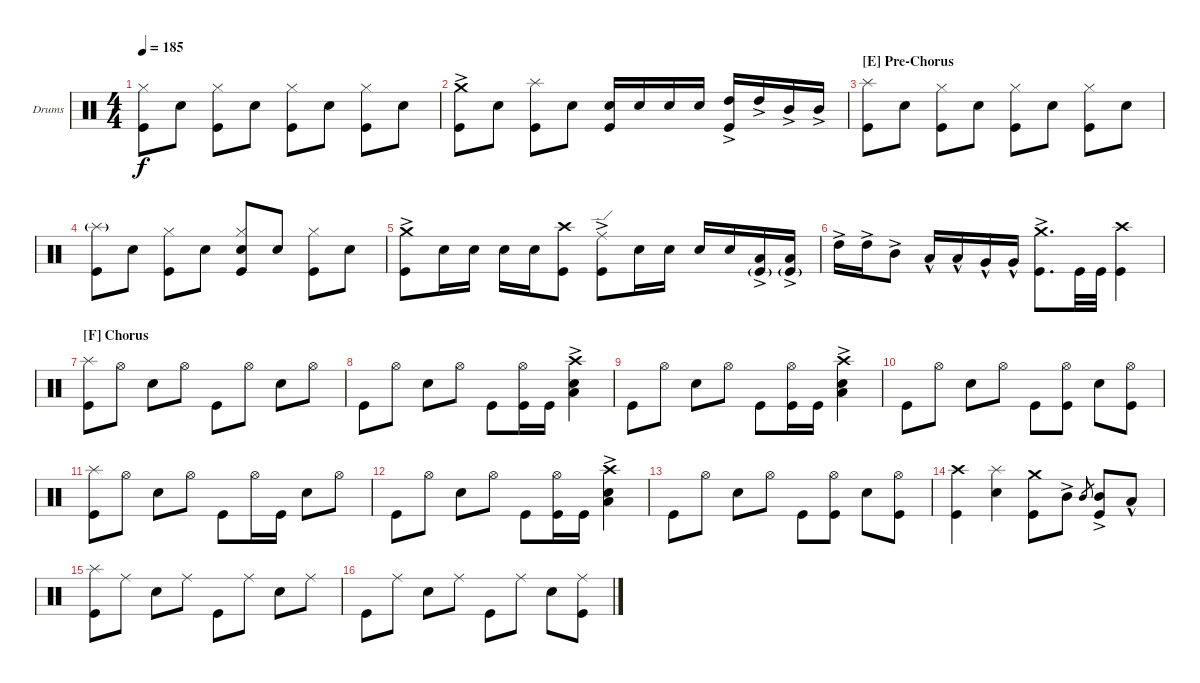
\defaultSystemsLayout 4
\bracketExtendMode groupsimilarinstruments
\firstSystemTrackNameOrientation horizontal
\otherSystemsTrackNameOrientation horizontal
\track ("Drumkit" "Drums") {instrument percussion}
\staff {score}
\articulation defaults
\ts (4 4)
\tempo 185
\clef neutral
\ks c
("Kick (hit)" "Hi-Hat (closed)").8{dy f} "Snare (hit) 2".8 ("Kick (hit)" "Hi-Hat (closed)").8 "Snare (hit) 2".8 ("Kick (hit)" "Hi-Hat (closed)").8 "Snare (hit) 2".8 ("Kick (hit)" "Hi-Hat (closed)").8 "Snare (hit) 2".8 |
("Kick (hit)" "Crash medium (hit)"{ac}).8 "Snare (hit) 2".8 ("Kick (hit)" "Splash (hit)").8 "Snare (hit) 2".8 ("Snare (hit) 2" "Kick (hit)").16 "Snare (hit) 2".16 "Snare (hit) 2".16 "Snare (hit) 2".16 ("Kick (hit)" "High Tom (hit)"{ac}).16 "High Tom (hit)"{ac}.16 "Mid Tom (hit)"{ac}.16 "Mid Tom (hit)"{ac}.16 |
\section ("E" "Pre-Chorus")
("Kick (hit)" "Splash (hit)").8 "Snare (hit) 2".8 ("Kick (hit)" "Hi-Hat (closed)").8 "Snare (hit) 2".8 ("Kick (hit)" "Hi-Hat (closed)").8 "Snare (hit) 2".8 ("Kick (hit)" "Hi-Hat (closed)").8 "Snare (hit) 2".8 |
("Kick (hit)" "Splash (hit)"{g}).8 "Snare (hit) 2".8 ("Kick (hit)" "Hi-Hat (closed)").8 "Snare (hit) 2".8 ("Kick (hit)" "Hi-Hat (closed)" "Snare (hit) 2").8 "Snare (hit) 2".8 ("Kick (hit)" "Hi-Hat (closed)").8 "Snare (hit) 2".8 |
("Kick (hit)" "Crash medium (hit)"{ac}).8 "Snare (hit) 2".16 "Snare (hit) 2".16 "Snare (hit) 2".16 "Snare (hit) 2".16 ("Kick (hit)" "Crash high (hit)").8 ("Kick (hit)" "Ride (edge)"{ac}).8 "Snare (hit) 2".16 "Snare (hit) 2".16 "Snare (hit) 2".16 "Snare (hit) 2".16 ("Low Tom (hit)"{ac} "Kick (hit)"{g}).16 ("Low Tom (hit)"{ac} "Kick (hit)"{g}).16 |
"High Tom (hit)"{ac}.16 "High Tom (hit)"{ac}.16 "Mid Tom (hit)"{ac}.8 "Low Tom (hit)"{hac}.16 "Low Tom (hit)"{hac}.16 "Very Low Tom (hit)"{hac}.16 "Very Low Tom (hit)"{hac}.16 ("Kick (hit)" "Crash medium (hit)"{ac}).8{d} "Kick (hit)".32 "Kick (hit)".32 ("Kick (hit)" "Crash high (hit)").4 |
\section ("F" "Chorus")
("Kick (hit)" "Splash (hit)").8 "Hi-Hat (open)".8 "Snare (hit) 2".8 "Hi-Hat (open)".8 "Kick (hit)".8 "Hi-Hat (open)".8 "Snare (hit) 2".8 "Hi-Hat (open)".8 |
"Kick (hit)".8 "Hi-Hat (open)".8 "Snare (hit) 2".8 "Hi-Hat (open)".8 "Kick (hit)".8 ("Kick (hit)" "Hi-Hat (open)").16 "Kick (hit)".16 ("Snare (hit) 2" "Crash high (hit)" "Low Tom (hit)"{ac}).4 |
"Kick (hit)".8 "Hi-Hat (open)".8 "Snare (hit) 2".8 "Hi-Hat (open)".8 "Kick (hit)".8 ("Kick (hit)" "Hi-Hat (open)").16 "Kick (hit)".16 ("Snare (hit) 2" "Crash high (hit)" "Low Tom (hit)"{ac}).4 |
"Kick (hit)".8 "Hi-Hat (open)".8 "Snare (hit) 2".8 "Hi-Hat (open)".8 "Kick (hit)".8 ("Kick (hit)" "Hi-Hat (open)").8 "Snare (hit) 2".8 ("Kick (hit)" "Hi-Hat (open)").8 |
("Kick (hit)" "Splash (hit)").8 "Hi-Hat (open)".8 "Snare (hit) 2".8 "Hi-Hat (open)".8 "Kick (hit)".8 "Hi-Hat (open)".16 "Kick (hit)".16 "Snare (hit) 2".8 "Hi-Hat (open)".8 |
"Kick (hit)".8 "Hi-Hat (open)".8 "Snare (hit) 2".8 "Hi-Hat (open)".8 "Kick (hit)".8 ("Kick (hit)" "Hi-Hat (open)").16 "Kick (hit)".16 ("Snare (hit) 2" "Crash high (hit)" "Low Tom (hit)"{ac}).4 |
"Kick (hit)".8 "Hi-Hat (open)".8 "Snare (hit) 2".8 "Hi-Hat (open)".8 "Kick (hit)".8 ("Kick (hit)" "Hi-Hat (open)").8 "Snare (hit) 2".8 ("Kick (hit)" "Hi-Hat (open)").8 |
("Kick (hit)" "Crash high (hit)").4 ("Snare (hit) 2" "Splash (hit)").4 ("Kick (hit)" "Crash medium (hit)").8 "Mid Tom (hit)"{ac}.8 "Mid Tom (hit)".8{gr} ("Kick (hit)" "Mid Tom (hit)"{ac}).8 "Low Tom (hit)"{hac}.8 |
("Kick (hit)" "Splash (hit)").8 "Ride (middle)".8 "Snare (hit) 2".8 "Ride (middle)".8 "Kick (hit)".8 "Ride (middle)".8 "Snare (hit) 2".8 "Ride (middle)".8 |
"Kick (hit)".8 "Ride (middle)".8 "Snare (hit) 2".8 "Ride (middle)".8 "Kick (hit)".8 "Ride (middle)".8 "Snare (hit) 2".8 ("Ride (middle)" "Kick (hit)").8
